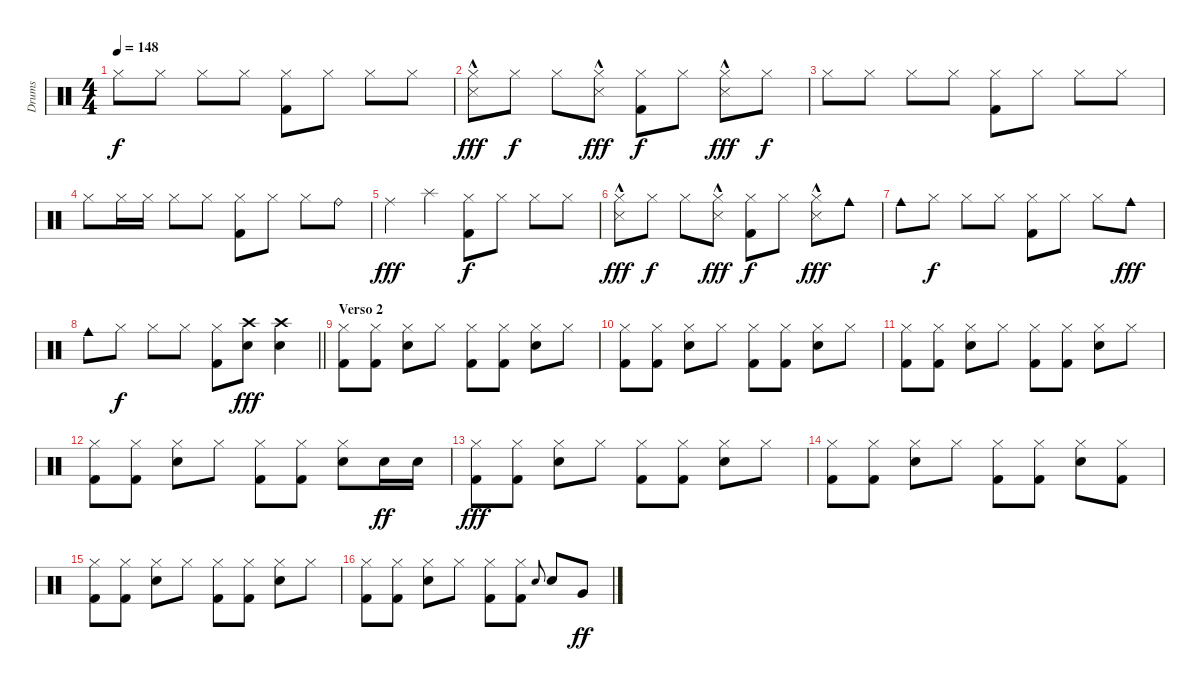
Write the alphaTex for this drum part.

\track ("Drums" "Drums") {instrument percussion}
\staff {score}
\articulation defaults
\ts (4 4)
\tempo 148
\clef neutral
\ks c "Hi-Hat (closed)".8{dy f} "Hi-Hat (closed)".8 "Hi-Hat (closed)".8 "Hi-Hat (closed)".8
("Hi-Hat (closed)" "Kick (hit) 2").8 "Hi-Hat (closed)".8 "Hi-Hat (closed)".8 "Hi-Hat (closed)".8 |
("Hi-Hat (closed)" "Snare (side stick) 3"{hac}).8{dy fff} "Hi-Hat (closed)".8{dy f} "Hi-Hat (closed)".8 ("Hi-Hat (closed)" "Snare (side stick) 3"{hac}).8{dy fff} ("Hi-Hat (closed)" "Kick (hit) 2").8{dy f} "Hi-Hat (closed)".8 ("Hi-Hat (closed)" "Snare (side stick) 3"{hac}).8{dy fff} "Hi-Hat (closed)".8{dy f} |
"Hi-Hat (closed)".8 "Hi-Hat (closed)".8 "Hi-Hat (closed)".8 "Hi-Hat (closed)".8 ("Hi-Hat (closed)" "Kick (hit) 2").8 "Hi-Hat (closed)".8 "Hi-Hat (closed)".8 "Hi-Hat (closed)".8 |
"Hi-Hat (closed)".8 "Hi-Hat (closed)".16 "Hi-Hat (closed)".16 "Hi-Hat (closed)".8 "Hi-Hat (closed)".8 ("Hi-Hat (closed)" "Kick (hit) 2").8 "Hi-Hat (closed)".8 "Hi-Hat (closed)".8 "Ride (bell)".8 |
"Ride (middle)".4{dy fff} "Splash (hit)".4 ("Hi-Hat (closed)" "Kick (hit) 2").8{dy f} "Hi-Hat (closed)".8 "Hi-Hat (closed)".8 "Hi-Hat (closed)".8 |
("Hi-Hat (closed)" "Snare (side stick) 3"{hac}).8{dy fff} "Hi-Hat (closed)".8{dy f} "Hi-Hat (closed)".8 ("Hi-Hat (closed)" "Snare (side stick) 3"{hac}).8{dy fff} ("Hi-Hat (closed)" "Kick (hit) 2").8{dy f} "Hi-Hat (closed)".8 ("Hi-Hat (closed)" "Snare (side stick) 3"{hac}).8{dy fff} "Cowbell medium (hit)".8 |
"Cowbell medium (hit)".8 "Hi-Hat (closed)".8{dy f} "Hi-Hat (closed)".8 "Hi-Hat (closed)".8 ("Hi-Hat (closed)" "Kick (hit) 2").8 "Hi-Hat (closed)".8 "Hi-Hat (closed)".8 "Cowbell medium (hit)".8{dy fff} |
\barLineRight lightlight "Cowbell medium (hit)".8 "Hi-Hat (closed)".8{dy f} "Hi-Hat (closed)".8 "Hi-Hat (closed)".8
("Hi-Hat (closed)" "Kick (hit) 2").8 ("Crash high (hit)" "Electric Snare (hit)").8{dy fff} ("Crash high (hit)" "Electric Snare (hit)").4 |
\section ("" "Verso 2")
("Hi-Hat (closed)" "Kick (hit) 2").8 ("Hi-Hat (closed)" "Kick (hit) 2").8 ("Hi-Hat (closed)" "Electric Snare (hit)").8 "Hi-Hat (closed)".8 ("Hi-Hat (closed)" "Kick (hit) 2").8 ("Hi-Hat (closed)" "Kick (hit) 2").8 ("Hi-Hat (closed)" "Electric Snare (hit)").8 "Hi-Hat (closed)".8 |
("Hi-Hat (closed)" "Kick (hit) 2").8 ("Hi-Hat (closed)" "Kick (hit) 2").8 ("Hi-Hat (closed)" "Electric Snare (hit)").8 "Hi-Hat (closed)".8 ("Hi-Hat (closed)" "Kick (hit) 2").8 ("Hi-Hat (closed)" "Kick (hit) 2").8 ("Hi-Hat (closed)" "Electric Snare (hit)").8 "Hi-Hat (closed)".8 |
("Hi-Hat (closed)" "Kick (hit) 2").8 ("Hi-Hat (closed)" "Kick (hit) 2").8 ("Hi-Hat (closed)" "Electric Snare (hit)").8 "Hi-Hat (closed)".8 ("Hi-Hat (closed)" "Kick (hit) 2").8 ("Hi-Hat (closed)" "Kick (hit) 2").8 ("Hi-Hat (closed)" "Electric Snare (hit)").8 "Hi-Hat (closed)".8 |
("Hi-Hat (closed)" "Kick (hit) 2").8 ("Hi-Hat (closed)" "Kick (hit) 2").8 ("Hi-Hat (closed)" "Electric Snare (hit)").8 "Hi-Hat (closed)".8 ("Hi-Hat (closed)" "Kick (hit) 2").8 ("Hi-Hat (closed)" "Kick (hit) 2").8 ("Hi-Hat (closed)" "Electric Snare (hit)").8 "Electric Snare (hit)".16{dy ff} "Electric Snare (hit)".16 |
("Hi-Hat (closed)" "Kick (hit) 2").8{dy fff} ("Hi-Hat (closed)" "Kick (hit) 2").8 ("Hi-Hat (closed)" "Electric Snare (hit)").8 "Hi-Hat (closed)".8 ("Hi-Hat (closed)" "Kick (hit) 2").8 ("Hi-Hat (closed)" "Kick (hit) 2").8 ("Hi-Hat (closed)" "Electric Snare (hit)").8 "Hi-Hat (closed)".8 |
("Hi-Hat (closed)" "Kick (hit) 2").8 ("Hi-Hat (closed)" "Kick (hit) 2").8 ("Hi-Hat (closed)" "Electric Snare (hit)").8 "Hi-Hat (closed)".8 ("Hi-Hat (closed)" "Kick (hit) 2").8 ("Hi-Hat (closed)" "Kick (hit) 2").8 ("Hi-Hat (closed)" "Electric Snare (hit)").8 ("Hi-Hat (closed)" "Kick (hit) 2").8 |
("Hi-Hat (closed)" "Kick (hit) 2").8 ("Hi-Hat (closed)" "Kick (hit) 2").8 ("Hi-Hat (closed)" "Electric Snare (hit)").8 "Hi-Hat (closed)".8 ("Hi-Hat (closed)" "Kick (hit) 2").8 ("Hi-Hat (closed)" "Kick (hit) 2").8 ("Hi-Hat (closed)" "Electric Snare (hit)").8 "Hi-Hat (closed)".8 |
("Hi-Hat (closed)" "Kick (hit) 2").8 ("Hi-Hat (closed)" "Kick (hit) 2").8 ("Hi-Hat (closed)" "Electric Snare (hit)").8 "Hi-Hat (closed)".8 ("Hi-Hat (closed)" "Kick (hit) 2").8 ("Hi-Hat (closed)" "Kick (hit) 2").8 "Electric Snare (hit)".8{gr onbeat} "Electric Snare (hit)".8 "Very Low Tom (hit)".8{dy ff}
